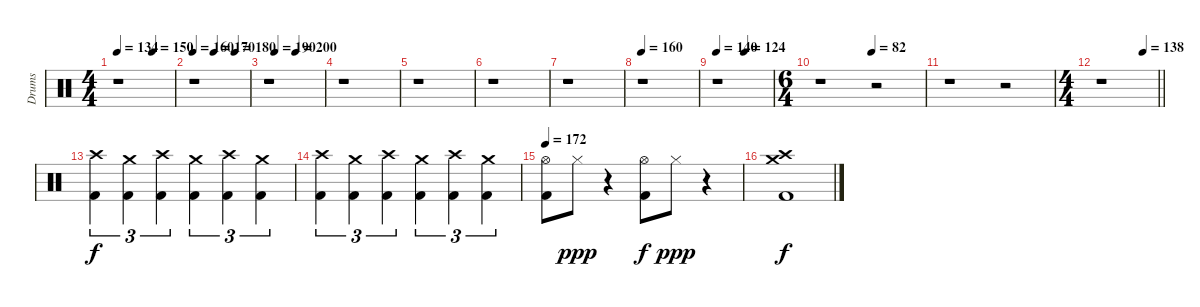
\track ("Drums" "Drums") {instrument percussion}
\staff {score}
\articulation defaults
\ts (4 4)
\tempo 134
\tempo (150 0.625)
\clef neutral
\ks c
r.1{dy f} |
\tempo 160
\tempo (170 0.375)
\tempo (180 0.75)
r.1 |
\tempo (190 0.125)
\tempo (200 0.5)
r.1 |
r.1 |
r.1 |
r.1 |
r.1 |
\tempo 160
r.1 |
\tempo 140
\tempo (124 0.5)
r.1 |
\ts (6 4)
\tempo (82 0.5)
r.1 r.2 |
r.1 r.2 |
\ts (4 4)
\tempo (138 0.75)
\barLineRight lightlight
r.1 |
("Crash high (hit)" "Kick (hit) 2").4{tu (3 2)} ("Crash medium (hit)" "Kick (hit) 2").4{tu (3 2)} ("Crash high (hit)" "Kick (hit) 2").4{tu (3 2)} ("Crash medium (hit)" "Kick (hit) 2").4{tu (3 2)} ("Crash high (hit)" "Kick (hit) 2").4{tu (3 2)} ("Crash medium (hit)" "Kick (hit) 2").4{tu (3 2)} |
("Crash high (hit)" "Kick (hit) 2").4{tu (3 2)} ("Crash medium (hit)" "Kick (hit) 2").4{tu (3 2)} ("Crash high (hit)" "Kick (hit) 2").4{tu (3 2)} ("Crash medium (hit)" "Kick (hit) 2").4{tu (3 2)} ("Crash high (hit)" "Kick (hit) 2").4{tu (3 2)} ("Crash medium (hit)" "Kick (hit) 2").4{tu (3 2)} |
\tempo 172
("Hi-Hat (open)" "Kick (hit) 2").8 "Hi-Hat (closed)".8{dy ppp} r.4 ("Hi-Hat (open)" "Kick (hit) 2").8{dy f} "Hi-Hat (closed)".8{dy ppp} r.4 |
("Crash high (hit)" "Crash medium (hit)" "Kick (hit) 2").1{dy f}
